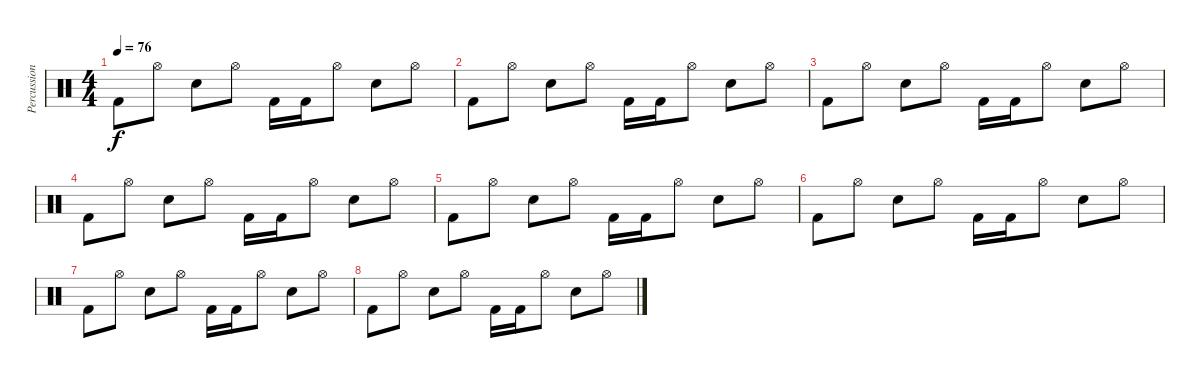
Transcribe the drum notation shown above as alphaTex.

\track ("Percussion" "Percussion") {instrument percussion}
\staff {score}
\articulation defaults
\ts (4 4)
\tempo 76
\clef neutral
\ks c "Kick (hit) 2".8{dy f} "Hi-Hat (open)".8 "Snare (hit) 2".8 "Hi-Hat (open)".8 "Kick (hit) 2".16 "Kick (hit) 2".16 "Hi-Hat (open)".8 "Snare (hit) 2".8 "Hi-Hat (open)".8
|
"Kick (hit) 2".8 "Hi-Hat (open)".8 "Snare (hit) 2".8 "Hi-Hat (open)".8 "Kick (hit) 2".16 "Kick (hit) 2".16 "Hi-Hat (open)".8 "Snare (hit) 2".8 "Hi-Hat (open)".8 |
"Kick (hit) 2".8 "Hi-Hat (open)".8 "Snare (hit) 2".8 "Hi-Hat (open)".8 "Kick (hit) 2".16 "Kick (hit) 2".16 "Hi-Hat (open)".8 "Snare (hit) 2".8 "Hi-Hat (open)".8 |
"Kick (hit) 2".8 "Hi-Hat (open)".8 "Snare (hit) 2".8 "Hi-Hat (open)".8 "Kick (hit) 2".16 "Kick (hit) 2".16 "Hi-Hat (open)".8 "Snare (hit) 2".8 "Hi-Hat (open)".8 |
"Kick (hit) 2".8 "Hi-Hat (open)".8 "Snare (hit) 2".8 "Hi-Hat (open)".8 "Kick (hit) 2".16 "Kick (hit) 2".16 "Hi-Hat (open)".8 "Snare (hit) 2".8 "Hi-Hat (open)".8 |
"Kick (hit) 2".8 "Hi-Hat (open)".8 "Snare (hit) 2".8 "Hi-Hat (open)".8 "Kick (hit) 2".16 "Kick (hit) 2".16 "Hi-Hat (open)".8 "Snare (hit) 2".8 "Hi-Hat (open)".8 |
"Kick (hit) 2".8 "Hi-Hat (open)".8 "Snare (hit) 2".8 "Hi-Hat (open)".8 "Kick (hit) 2".16 "Kick (hit) 2".16 "Hi-Hat (open)".8 "Snare (hit) 2".8 "Hi-Hat (open)".8 |
"Kick (hit) 2".8 "Hi-Hat (open)".8 "Snare (hit) 2".8 "Hi-Hat (open)".8 "Kick (hit) 2".16 "Kick (hit) 2".16 "Hi-Hat (open)".8 "Snare (hit) 2".8 "Hi-Hat (open)".8
